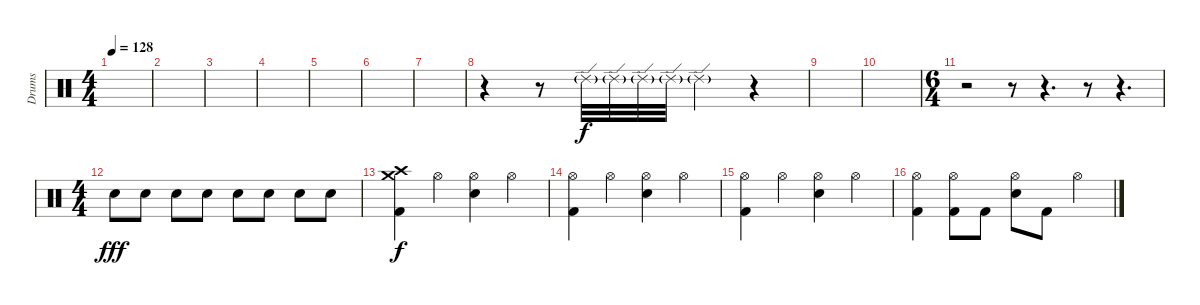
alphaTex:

\track ("Drums" "Drums") {instrument percussion}
\staff {score}
\articulation defaults
\ts (4 4)
\tempo 128
\clef neutral
\ks c
|
|
|
|
|
|
|
r.4 r.8 "Ride (edge) 2"{g}.32 "Ride (edge) 2"{g}.32 "Ride (edge) 2"{g}.32 "Ride (edge) 2"{g}.32 "Ride (edge) 2"{g}.4 r.4 |
|
|
\ts (6 4)
r.2 r.8 r.4{d} r.8 r.4{d} |
\ts (4 4)
"Snare (hit) 2".8{dy fff} "Snare (hit) 2".8 "Snare (hit) 2".8 "Snare (hit) 2".8 "Snare (hit) 2".8 "Snare (hit) 2".8 "Snare (hit) 2".8 "Snare (hit) 2".8 |
("Crash medium (hit)" "Crash high (hit)" "Kick (hit) 2").4{dy f} "Hi-Hat (open)".4 ("Hi-Hat (open)" "Snare (hit) 2").4 "Hi-Hat (open)".4 |
("Hi-Hat (open)" "Kick (hit) 2").4 "Hi-Hat (open)".4 ("Hi-Hat (open)" "Snare (hit) 2").4 "Hi-Hat (open)".4 |
("Hi-Hat (open)" "Kick (hit) 2").4 "Hi-Hat (open)".4 ("Hi-Hat (open)" "Snare (hit) 2").4 "Hi-Hat (open)".4 |
("Hi-Hat (open)" "Kick (hit) 2").4 ("Hi-Hat (open)" "Kick (hit) 2").8 "Kick (hit) 2".8 ("Hi-Hat (open)" "Snare (hit) 2").8 "Kick (hit) 2".8 "Hi-Hat (open)".4
